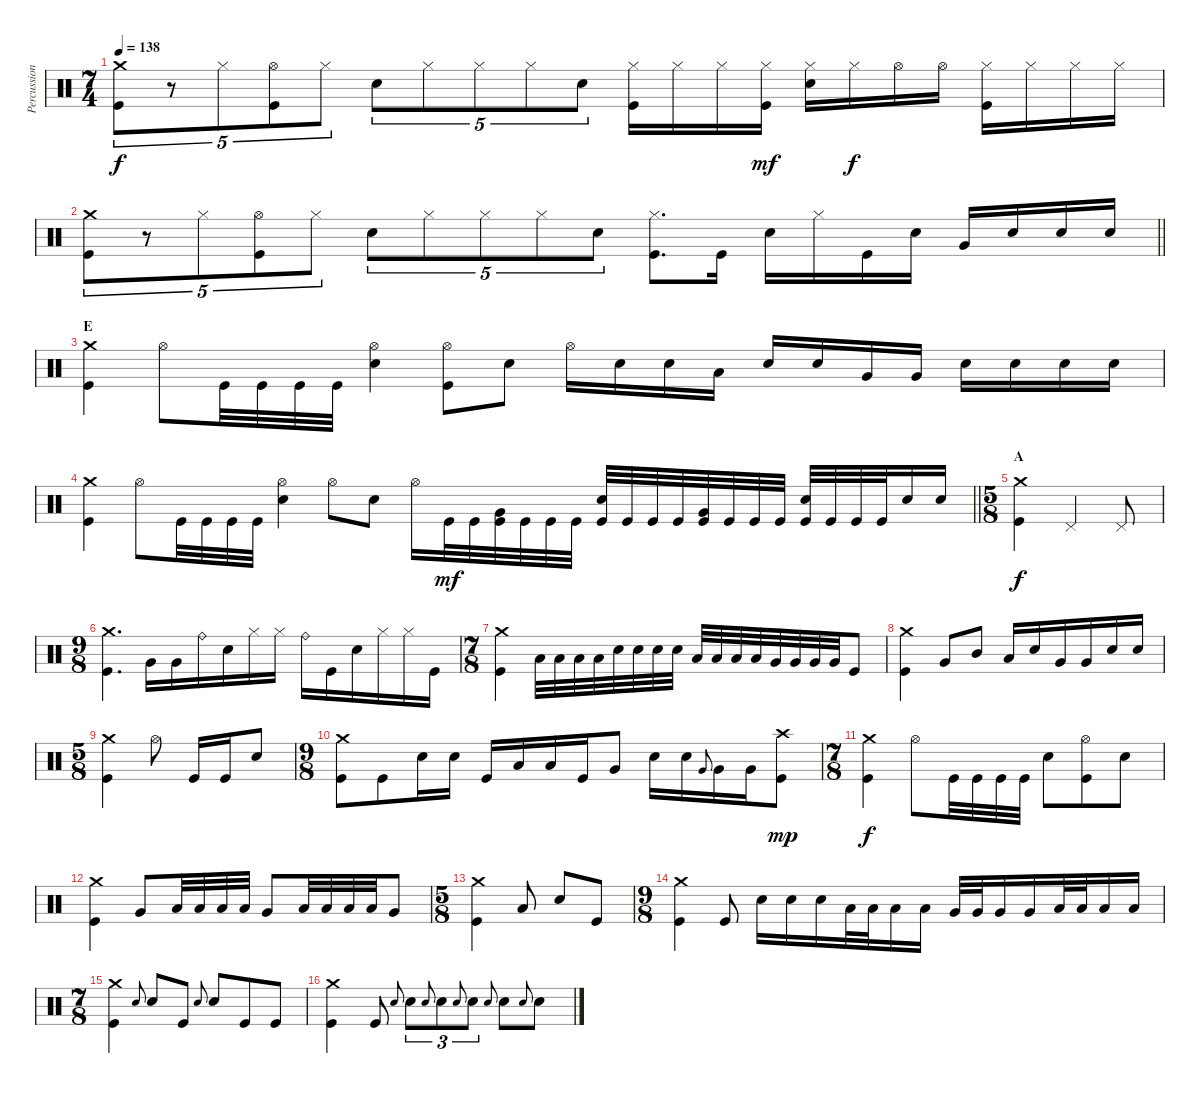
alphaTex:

\track ("Percussion" "Percussion") {instrument percussion}
\staff {score}
\articulation defaults
\ts (7 4)
\tempo 138
\clef neutral
\ks c
("Kick (hit)" "Crash medium (hit)").8{tu (5 4) dy f} r.8{tu (5 4)} "Hi-Hat (closed)".8{tu (5 4)} ("Kick (hit)" "Hi-Hat (open)").8{tu (5 4)} "Hi-Hat (closed)".8{tu (5 4)} "Snare (hit) 2".8{tu (5 4)} "Hi-Hat (closed)".8{tu (5 4)} "Hi-Hat (closed)".8{tu (5 4)} "Hi-Hat (closed)".8{tu (5 4)} "Snare (hit) 2".8{tu (5 4)} ("Kick (hit)" "Hi-Hat (closed)").16 "Hi-Hat (closed)".16 "Hi-Hat (closed)".16 ("Kick (hit)" "Hi-Hat (closed)").16{dy mf} ("Snare (hit) 2" "Hi-Hat (closed)").16 "Hi-Hat (closed)".16{dy f} "Hi-Hat (open)".16 "Hi-Hat (open)".16 ("Kick (hit)" "Hi-Hat (closed)").16 "Hi-Hat (closed)".16 "Hi-Hat (closed)".16 "Hi-Hat (closed)".16 |
\barLineRight lightlight
("Kick (hit)" "Crash medium (hit)").8{tu (5 4)} r.8{tu (5 4)} "Hi-Hat (closed)".8{tu (5 4)} ("Kick (hit)" "Hi-Hat (open)").8{tu (5 4)} "Hi-Hat (closed)".8{tu (5 4)} "Snare (hit) 2".8{tu (5 4)} "Hi-Hat (closed)".8{tu (5 4)} "Hi-Hat (closed)".8{tu (5 4)} "Hi-Hat (closed)".8{tu (5 4)} "Snare (hit) 2".8{tu (5 4)} ("Kick (hit)" "Hi-Hat (closed)").8{d} "Kick (hit)".16 "Snare (hit) 2".16 "Hi-Hat (closed)".16 "Kick (hit)".16 "Snare (hit) 2".16 "Very Low Tom (hit)".16 "Snare (hit) 2".16 "Snare (hit) 2".16 "Snare (hit) 2".16 |
\section ("" "E")
("Kick (hit)" "Crash medium (hit)").4 "Hi-Hat (open)".8 "Kick (hit)".32 "Kick (hit)".32 "Kick (hit)".32 "Kick (hit)".32 ("Snare (hit) 2" "Hi-Hat (open)").4 ("Kick (hit)" "Hi-Hat (open)").8 "Snare (hit) 2".8 "Hi-Hat (open)".16 "Snare (hit) 2".16 "Snare (hit) 2".16 "Low Tom (hit)".16 "Snare (hit) 2".16 "Snare (hit) 2".16 "Very Low Tom (hit)".16 "Very Low Tom (hit)".16 "Snare (hit) 2".16 "Snare (hit) 2".16 "Snare (hit) 2".16 "Snare (hit) 2".16 |
\barLineRight lightlight
("Kick (hit)" "Crash medium (hit)").4 "Hi-Hat (open)".8 "Kick (hit)".32 "Kick (hit)".32 "Kick (hit)".32 "Kick (hit)".32 ("Snare (hit) 2" "Hi-Hat (open)").4 "Hi-Hat (open)".8 "Snare (hit) 2".8 "Hi-Hat (open)".16 "Kick (hit)".32{dy mf} "Kick (hit)".32 ("Kick (hit)" "Very Low Tom (hit)").32 "Kick (hit)".32 "Kick (hit)".32 "Kick (hit)".32 ("Kick (hit)" "Snare (hit) 2").32 "Kick (hit)".32 "Kick (hit)".32 "Kick (hit)".32 ("Kick (hit)" "Very Low Tom (hit)").32 "Kick (hit)".32 "Kick (hit)".32 "Kick (hit)".32 ("Kick (hit)" "Snare (hit) 2").32 "Kick (hit)".32 "Kick (hit)".32 "Kick (hit)".32 "Snare (hit) 2".16 "Snare (hit) 2".16 |
\ts (5 8)
\section ("" "A")
("Kick (hit)" "Crash medium (hit)").4{dy f} "Pedal Hi-Hat (hit)".4 "Pedal Hi-Hat (hit)".8 |
\ts (9 8)
("Kick (hit)" "Crash medium (hit)").4{d} "Very Low Tom (hit)".16 "Very Low Tom (hit)".16 "Ride (bell)".16 "Snare (hit) 2".16 "Hi-Hat (closed)".16 "Hi-Hat (closed)".16 "Ride (bell)".16 "Kick (hit)".16 "Snare (hit) 2".16 "Hi-Hat (closed)".16 "Hi-Hat (closed)".16 "Kick (hit)".16 |
\ts (7 8)
("Kick (hit)" "Crash medium (hit)").4 "Low Tom (hit)".32 "Low Tom (hit)".32 "Low Tom (hit)".32 "Low Tom (hit)".32 "Snare (hit) 2".32 "Snare (hit) 2".32 "Snare (hit) 2".32 "Snare (hit) 2".32 "Low Tom (hit)".32 "Low Tom (hit)".32 "Low Tom (hit)".32 "Low Tom (hit)".32 "Very Low Tom (hit)".32 "Very Low Tom (hit)".32 "Very Low Tom (hit)".32 "Very Low Tom (hit)".32 "Kick (hit)".8 |
("Kick (hit)" "Crash medium (hit)").4 "Very Low Tom (hit)".8 "Mid Tom (hit)".8 "Low Tom (hit)".16 "Snare (hit) 2".16 "Very Low Tom (hit)".16 "Very Low Tom (hit)".16 "Snare (hit) 2".16 "Snare (hit) 2".16 |
\ts (5 8)
("Kick (hit)" "Crash medium (hit)").4 "Hi-Hat (open)".8 "Kick (hit)".16 "Kick (hit)".16 "Snare (hit) 2".8 |
\ts (9 8)
("Kick (hit)" "Crash medium (hit)").8 "Kick (hit)".8 "Snare (hit) 2".16 "Snare (hit) 2".16 "Kick (hit)".16 "Low Tom (hit)".16 "Low Tom (hit)".16 "Kick (hit)".16 "Very Low Tom (hit)".8 "Snare (hit) 2".16 "Snare (hit) 2".16 "Very Low Tom (hit)".8{gr onbeat} "Very Low Tom (hit)".16 "Very Low Tom (hit)".16 ("Crash high (hit)" "Kick (hit)").8{dy mp} |
\ts (7 8)
("Kick (hit)" "Crash medium (hit)").4{dy f} "Hi-Hat (open)".8 "Kick (hit)".32 "Kick (hit)".32 "Kick (hit)".32 "Kick (hit)".32 "Snare (hit) 2".8 ("Kick (hit)" "Hi-Hat (open)").8 "Snare (hit) 2".8 |
("Kick (hit)" "Crash medium (hit)").4 "Very Low Tom (hit)".8 "Low Tom (hit)".32 "Low Tom (hit)".32 "Low Tom (hit)".32 "Low Tom (hit)".32 "Very Low Tom (hit)".8 "Low Tom (hit)".32 "Low Tom (hit)".32 "Low Tom (hit)".32 "Low Tom (hit)".32 "Very Low Tom (hit)".8 |
\ts (5 8)
("Kick (hit)" "Crash medium (hit)").4 "Low Tom (hit)".8 "Snare (hit) 2".8 "Kick (hit)".8 |
\ts (9 8)
("Kick (hit)" "Crash medium (hit)").4 "Kick (hit)".8 "Snare (hit) 2".16 "Snare (hit) 2".16 "Snare (hit) 2".16 "Low Tom (hit)".32 "Low Tom (hit)".32 "Low Tom (hit)".16 "Low Tom (hit)".16 "Very Low Tom (hit)".32 "Very Low Tom (hit)".32 "Very Low Tom (hit)".16 "Very Low Tom (hit)".16 "Low Floor Tom (hit)".32 "Low Floor Tom (hit)".32 "Low Floor Tom (hit)".16 "Low Floor Tom (hit)".16 |
\ts (7 8)
("Kick (hit)" "Crash medium (hit)").4 "Snare (hit) 2".8{gr onbeat} "Snare (hit) 2".8 "Kick (hit)".8 "Snare (hit) 2".8{gr onbeat} "Snare (hit) 2".8 "Kick (hit)".8 "Kick (hit)".8 |
("Kick (hit)" "Crash medium (hit)").4 "Kick (hit)".8 "Snare (hit) 2".8{gr onbeat} "Snare (hit) 2".8{tu (3 2)} "Snare (hit) 2".8{gr onbeat} "Snare (hit) 2".8{tu (3 2)} "Snare (hit) 2".8{gr onbeat} "Snare (hit) 2".8{tu (3 2)} "Snare (hit) 2".8{gr onbeat} "Snare (hit) 2".8 "Snare (hit) 2".8{gr onbeat} "Snare (hit) 2".8
